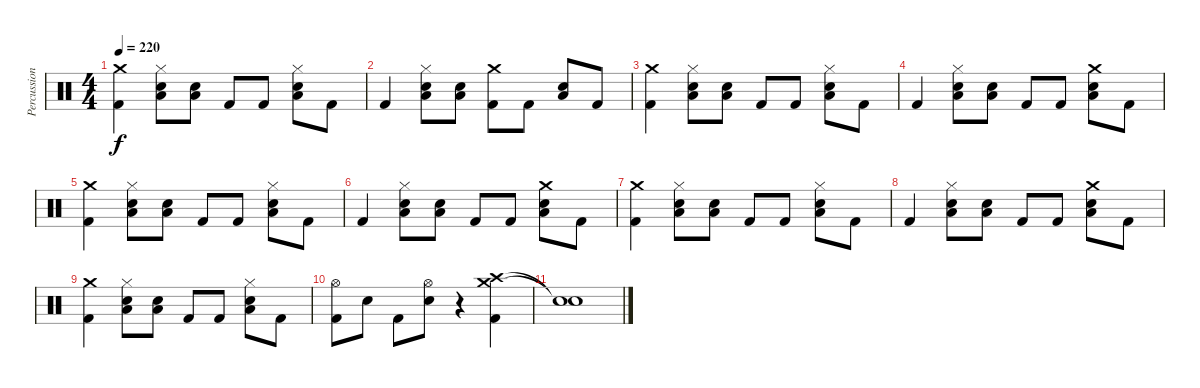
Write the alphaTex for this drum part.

\track ("Percussion" "Percussion") {instrument percussion}
\staff {score}
\articulation defaults
\ts (4 4)
\tempo 220
\clef neutral
\ks c
("Crash medium (hit)" "Kick (hit) 2").4{dy f} ("Hi-Hat (closed)" "Low Tom (hit)" "Snare (hit) 2").8 ("Low Tom (hit)" "Snare (hit) 2").8 "Kick (hit) 2".8 "Kick (hit) 2".8 ("Hi-Hat (closed)" "Low Tom (hit)" "Snare (hit) 2").8 "Kick (hit) 2".8 |
"Kick (hit) 2".4 ("Hi-Hat (closed)" "Low Tom (hit)" "Snare (hit) 2").8 ("Low Tom (hit)" "Snare (hit) 2").8 ("Crash medium (hit)" "Kick (hit) 2").8 "Kick (hit) 2".8 ("Low Tom (hit)" "Snare (hit) 2").8 "Kick (hit) 2".8 |
("Crash medium (hit)" "Kick (hit) 2").4 ("Hi-Hat (closed)" "Low Tom (hit)" "Snare (hit) 2").8 ("Low Tom (hit)" "Snare (hit) 2").8 "Kick (hit) 2".8 "Kick (hit) 2".8 ("Hi-Hat (closed)" "Low Tom (hit)" "Snare (hit) 2").8 "Kick (hit) 2".8 |
"Kick (hit) 2".4 ("Hi-Hat (closed)" "Low Tom (hit)" "Snare (hit) 2").8 ("Low Tom (hit)" "Snare (hit) 2").8 "Kick (hit) 2".8 "Kick (hit) 2".8 ("Crash medium (hit)" "Low Tom (hit)" "Snare (hit) 2").8 "Kick (hit) 2".8 |
("Crash medium (hit)" "Kick (hit) 2").4 ("Hi-Hat (closed)" "Low Tom (hit)" "Snare (hit) 2").8 ("Low Tom (hit)" "Snare (hit) 2").8 "Kick (hit) 2".8 "Kick (hit) 2".8 ("Hi-Hat (closed)" "Low Tom (hit)" "Snare (hit) 2").8 "Kick (hit) 2".8 |
"Kick (hit) 2".4 ("Hi-Hat (closed)" "Low Tom (hit)" "Snare (hit) 2").8 ("Low Tom (hit)" "Snare (hit) 2").8 "Kick (hit) 2".8 "Kick (hit) 2".8 ("Crash medium (hit)" "Low Tom (hit)" "Snare (hit) 2").8 "Kick (hit) 2".8 |
("Crash medium (hit)" "Kick (hit) 2").4 ("Hi-Hat (closed)" "Low Tom (hit)" "Snare (hit) 2").8 ("Low Tom (hit)" "Snare (hit) 2").8 "Kick (hit) 2".8 "Kick (hit) 2".8 ("Hi-Hat (closed)" "Low Tom (hit)" "Snare (hit) 2").8 "Kick (hit) 2".8 |
"Kick (hit) 2".4 ("Hi-Hat (closed)" "Low Tom (hit)" "Snare (hit) 2").8 ("Low Tom (hit)" "Snare (hit) 2").8 "Kick (hit) 2".8 "Kick (hit) 2".8 ("Crash medium (hit)" "Low Tom (hit)" "Snare (hit) 2").8 "Kick (hit) 2".8 |
("Crash medium (hit)" "Kick (hit) 2").4 ("Hi-Hat (closed)" "Low Tom (hit)" "Snare (hit) 2").8 ("Low Tom (hit)" "Snare (hit) 2").8 "Kick (hit) 2".8 "Kick (hit) 2".8 ("Hi-Hat (closed)" "Low Tom (hit)" "Snare (hit) 2").8 "Kick (hit) 2".8 |
("Hi-Hat (open)" "Kick (hit) 2").8 "Snare (hit) 2".8 "Kick (hit) 2".8 ("Hi-Hat (open)" "Snare (hit) 2").8 r.4 ("Crash high (hit)" "Crash medium (hit)" "Kick (hit) 2").4 |
("Snare (hit)"{t} "Snare (hit)"{t}).1
